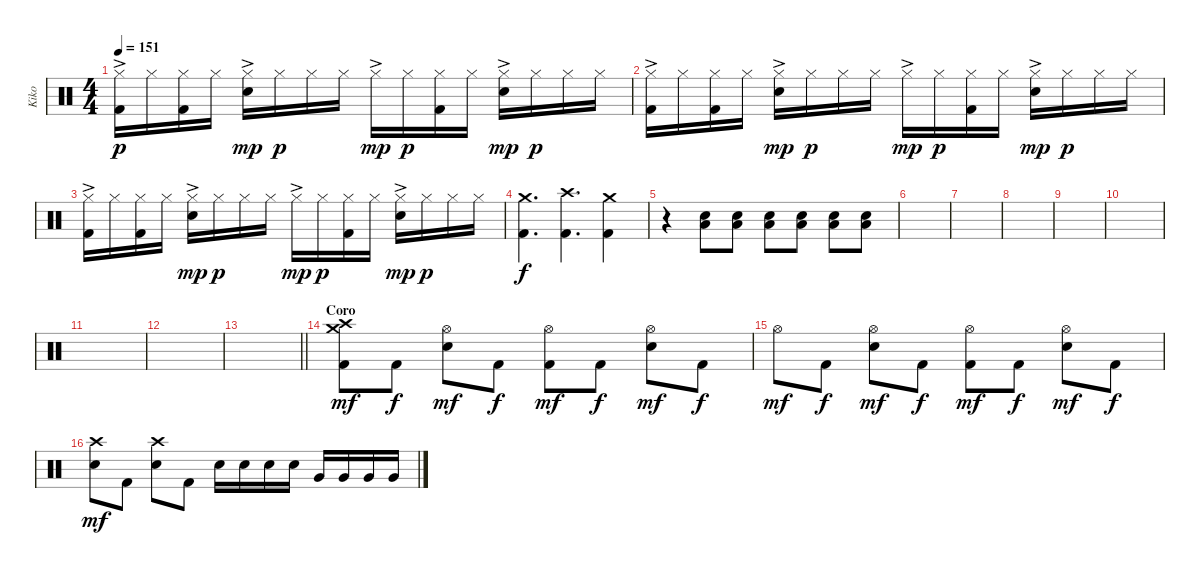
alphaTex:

\track ("Kiko" "Kiko") {instrument percussion}
\staff {score}
\articulation defaults
\ts (4 4)
\tempo 151
\clef neutral
\ks c
("Hi-Hat (closed)"{ac} "Kick (hit) 2").16{dy p} "Hi-Hat (closed)".16 ("Hi-Hat (closed)" "Kick (hit) 2").16 "Hi-Hat (closed)".16 ("Hi-Hat (closed)"{ac} "Electric Snare (hit)"{ac}).16{dy mp} "Hi-Hat (closed)".16{dy p} "Hi-Hat (closed)".16 "Hi-Hat (closed)".16 "Hi-Hat (closed)"{ac}.16{dy mp} "Hi-Hat (closed)".16{dy p} ("Hi-Hat (closed)" "Kick (hit) 2").16 "Hi-Hat (closed)".16 ("Hi-Hat (closed)"{ac} "Electric Snare (hit)"{ac}).16{dy mp} "Hi-Hat (closed)".16{dy p} "Hi-Hat (closed)".16 "Hi-Hat (closed)".16 |
("Hi-Hat (closed)"{ac} "Kick (hit) 2").16 "Hi-Hat (closed)".16 ("Hi-Hat (closed)" "Kick (hit) 2").16 "Hi-Hat (closed)".16 ("Hi-Hat (closed)"{ac} "Electric Snare (hit)"{ac}).16{dy mp} "Hi-Hat (closed)".16{dy p} "Hi-Hat (closed)".16 "Hi-Hat (closed)".16 "Hi-Hat (closed)"{ac}.16{dy mp} "Hi-Hat (closed)".16{dy p} ("Hi-Hat (closed)" "Kick (hit) 2").16 "Hi-Hat (closed)".16 ("Hi-Hat (closed)"{ac} "Electric Snare (hit)"{ac}).16{dy mp} "Hi-Hat (closed)".16{dy p} "Hi-Hat (closed)".16 "Hi-Hat (closed)".16 |
("Hi-Hat (closed)"{ac} "Kick (hit) 2").16 "Hi-Hat (closed)".16 ("Hi-Hat (closed)" "Kick (hit) 2").16 "Hi-Hat (closed)".16 ("Hi-Hat (closed)"{ac} "Electric Snare (hit)"{ac}).16{dy mp} "Hi-Hat (closed)".16{dy p} "Hi-Hat (closed)".16 "Hi-Hat (closed)".16 "Hi-Hat (closed)"{ac}.16{dy mp} "Hi-Hat (closed)".16{dy p} ("Hi-Hat (closed)" "Kick (hit) 2").16 "Hi-Hat (closed)".16 ("Hi-Hat (closed)"{ac} "Electric Snare (hit)"{ac}).16{dy mp} "Hi-Hat (closed)".16{dy p} "Hi-Hat (closed)".16 "Hi-Hat (closed)".16 |
("Crash medium (hit)" "Kick (hit) 2").4{d dy f} ("Crash high (hit)" "Kick (hit) 2").4{d} ("Crash medium (hit)" "Kick (hit) 2").4 |
r.4 ("Electric Snare (hit)" "Low Floor Tom (hit)").8 ("Electric Snare (hit)" "Low Floor Tom (hit)").8 ("Electric Snare (hit)" "Low Floor Tom (hit)").8 ("Electric Snare (hit)" "Low Floor Tom (hit)").8 ("Electric Snare (hit)" "Low Floor Tom (hit)").8 ("Electric Snare (hit)" "Low Floor Tom (hit)").8 |
|
|
|
|
|
|
|
\barLineRight lightlight
|
\section ("" "Coro")
("Crash medium (hit)" "Crash high (hit)" "Kick (hit) 2").8{dy mf} "Kick (hit) 2".8{dy f} ("Hi-Hat (open)" "Electric Snare (hit)").8{dy mf} "Kick (hit) 2".8{dy f} ("Hi-Hat (open)" "Kick (hit) 2").8{dy mf} "Kick (hit) 2".8{dy f} ("Hi-Hat (open)" "Electric Snare (hit)").8{dy mf} "Kick (hit) 2".8{dy f} |
"Hi-Hat (open)".8{dy mf} "Kick (hit) 2".8{dy f} ("Hi-Hat (open)" "Electric Snare (hit)").8{dy mf} "Kick (hit) 2".8{dy f} ("Hi-Hat (open)" "Kick (hit) 2").8{dy mf} "Kick (hit) 2".8{dy f} ("Hi-Hat (open)" "Electric Snare (hit)").8{dy mf} "Kick (hit) 2".8{dy f} |
("Crash high (hit)" "Electric Snare (hit)").8{dy mf} "Kick (hit) 2".8 ("Crash high (hit)" "Electric Snare (hit)").8 "Kick (hit) 2".8 "Electric Snare (hit)".16 "Electric Snare (hit)".16 "Electric Snare (hit)".16 "Electric Snare (hit)".16 "Very Low Tom (hit)".16 "Very Low Tom (hit)".16 "Very Low Tom (hit)".16 "Very Low Tom (hit)".16
